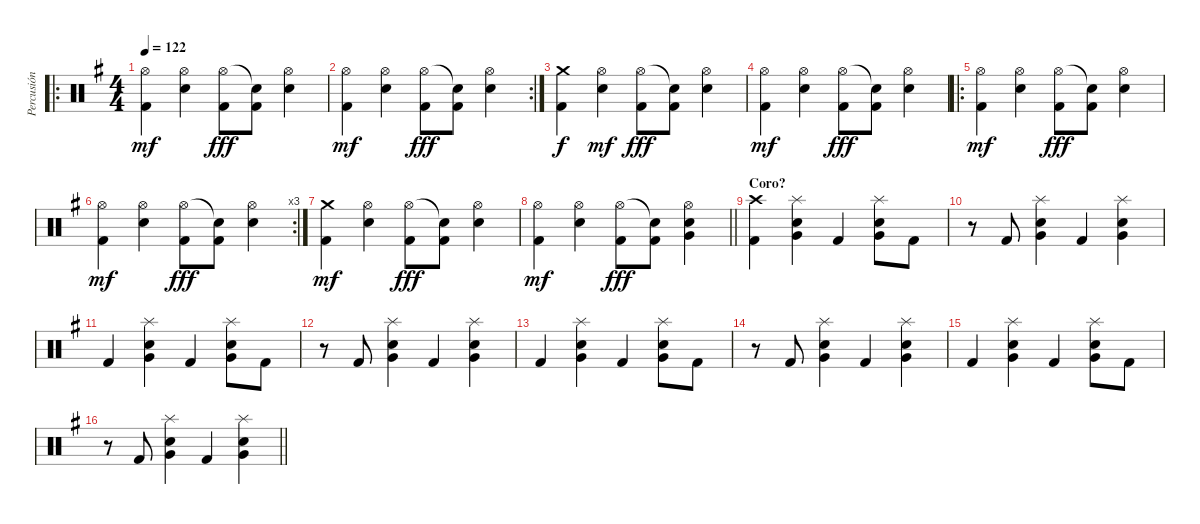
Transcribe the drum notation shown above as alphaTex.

\track ("Percusión" "Percusión") {instrument percussion}
\staff {score}
\articulation defaults
\ro
\ts (4 4)
\tempo 122
\clef neutral
\ks g
("Hi-Hat (open)" "Kick (hit) 2").4{dy mf} ("Hi-Hat (open)" "Snare (hit) 2").4 ("Hi-Hat (open)" "Kick (hit) 2").8{dy fff} ("Snare (hit)"{t} "Kick (hit) 2").8 ("Hi-Hat (open)" "Snare (hit) 2").4 |
\rc 2
("Hi-Hat (open)" "Kick (hit) 2").4{dy mf} ("Hi-Hat (open)" "Snare (hit) 2").4 ("Hi-Hat (open)" "Kick (hit) 2").8{dy fff} ("Snare (hit)"{t} "Kick (hit) 2").8 ("Hi-Hat (open)" "Snare (hit) 2").4 |
("Crash medium (hit)" "Kick (hit) 2").4{dy f} ("Hi-Hat (open)" "Snare (hit) 2").4{dy mf} ("Hi-Hat (open)" "Kick (hit) 2").8{dy fff} ("Snare (hit)"{t} "Kick (hit) 2").8 ("Hi-Hat (open)" "Snare (hit) 2").4 |
("Hi-Hat (open)" "Kick (hit) 2").4{dy mf} ("Hi-Hat (open)" "Snare (hit) 2").4 ("Hi-Hat (open)" "Kick (hit) 2").8{dy fff} ("Snare (hit)"{t} "Kick (hit) 2").8 ("Hi-Hat (open)" "Snare (hit) 2").4 |
\ro
("Hi-Hat (open)" "Kick (hit) 2").4{dy mf} ("Hi-Hat (open)" "Snare (hit) 2").4 ("Hi-Hat (open)" "Kick (hit) 2").8{dy fff} ("Snare (hit)"{t} "Kick (hit) 2").8 ("Hi-Hat (open)" "Snare (hit) 2").4 |
\rc 3
("Hi-Hat (open)" "Kick (hit) 2").4{dy mf} ("Hi-Hat (open)" "Snare (hit) 2").4 ("Hi-Hat (open)" "Kick (hit) 2").8{dy fff} ("Snare (hit)"{t} "Kick (hit) 2").8 ("Hi-Hat (open)" "Snare (hit) 2").4 |
("Crash medium (hit)" "Kick (hit) 2").4{dy mf} ("Hi-Hat (open)" "Snare (hit) 2").4 ("Hi-Hat (open)" "Kick (hit) 2").8{dy fff} ("Snare (hit)"{t} "Kick (hit) 2").8 ("Hi-Hat (open)" "Snare (hit) 2").4 |
\barLineRight lightlight
("Hi-Hat (open)" "Kick (hit) 2").4{dy mf} ("Hi-Hat (open)" "Snare (hit) 2").4 ("Hi-Hat (open)" "Kick (hit) 2").8{dy fff} ("Snare (hit)"{t} "Kick (hit) 2").8 ("Hi-Hat (open)" "Very Low Tom (hit)" "Snare (hit) 2").4 |
\section ("" "Coro?")
("Crash high (hit)" "Kick (hit) 2").4 ("Splash (hit)" "Very Low Tom (hit)" "Snare (hit) 2").4 "Kick (hit) 2".4 ("Splash (hit)" "Very Low Tom (hit)" "Snare (hit) 2").8 "Kick (hit) 2".8 |
r.8 "Kick (hit) 2".8 ("Splash (hit)" "Very Low Tom (hit)" "Snare (hit) 2").4 "Kick (hit) 2".4 ("Splash (hit)" "Very Low Tom (hit)" "Snare (hit) 2").4 |
"Kick (hit) 2".4 ("Splash (hit)" "Very Low Tom (hit)" "Snare (hit) 2").4 "Kick (hit) 2".4 ("Splash (hit)" "Very Low Tom (hit)" "Snare (hit) 2").8 "Kick (hit) 2".8 |
r.8 "Kick (hit) 2".8 ("Splash (hit)" "Very Low Tom (hit)" "Snare (hit) 2").4 "Kick (hit) 2".4 ("Splash (hit)" "Very Low Tom (hit)" "Snare (hit) 2").4 |
"Kick (hit) 2".4 ("Splash (hit)" "Very Low Tom (hit)" "Snare (hit) 2").4 "Kick (hit) 2".4 ("Splash (hit)" "Very Low Tom (hit)" "Snare (hit) 2").8 "Kick (hit) 2".8 |
r.8 "Kick (hit) 2".8 ("Splash (hit)" "Very Low Tom (hit)" "Snare (hit) 2").4 "Kick (hit) 2".4 ("Splash (hit)" "Very Low Tom (hit)" "Snare (hit) 2").4 |
"Kick (hit) 2".4 ("Splash (hit)" "Very Low Tom (hit)" "Snare (hit) 2").4 "Kick (hit) 2".4 ("Splash (hit)" "Very Low Tom (hit)" "Snare (hit) 2").8 "Kick (hit) 2".8 |
\barLineRight lightlight
r.8 "Kick (hit) 2".8 ("Splash (hit)" "Very Low Tom (hit)" "Snare (hit) 2").4 "Kick (hit) 2".4 ("Splash (hit)" "Very Low Tom (hit)" "Snare (hit) 2").4
